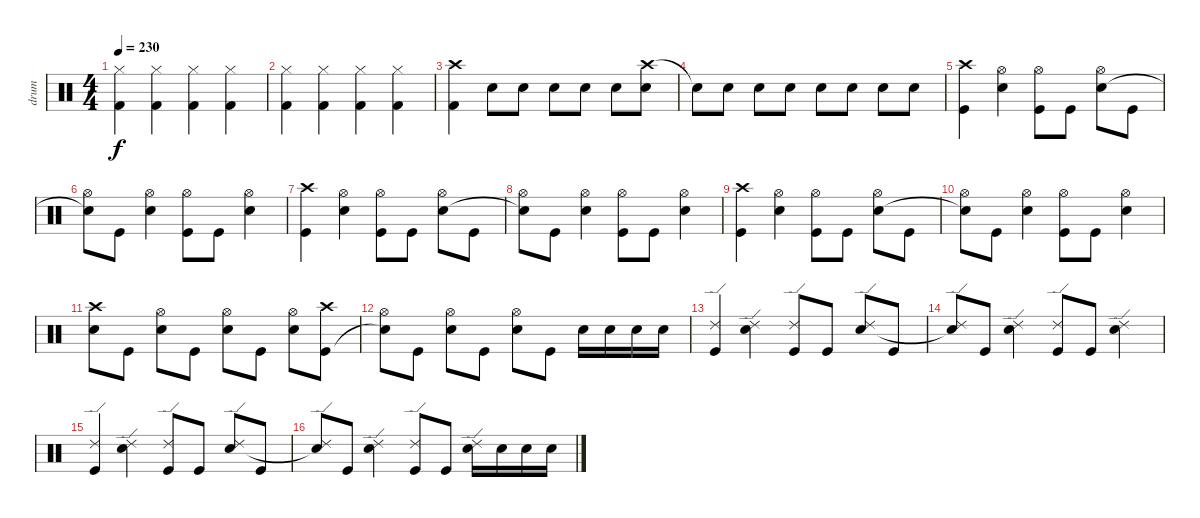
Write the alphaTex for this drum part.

\track ("drum" "drum") {instrument percussion}
\staff {score}
\articulation defaults
\ts (4 4)
\tempo 230
\clef neutral
\ks c
("Hi-Hat (closed)" "Kick (hit) 2").4{dy f} ("Hi-Hat (closed)" "Kick (hit) 2").4 ("Hi-Hat (closed)" "Kick (hit) 2").4 ("Hi-Hat (closed)" "Kick (hit) 2").4 |
("Hi-Hat (closed)" "Kick (hit) 2").4 ("Hi-Hat (closed)" "Kick (hit) 2").4 ("Hi-Hat (closed)" "Kick (hit) 2").4 ("Hi-Hat (closed)" "Kick (hit) 2").4 |
("Crash high (hit)" "Kick (hit) 2").4 "Snare (hit) 2".8 "Snare (hit) 2".8 "Snare (hit) 2".8 "Snare (hit) 2".8 "Snare (hit) 2".8 ("Crash high (hit)" "Snare (hit) 2").8 |
"Snare (hit)"{t}.8 "Snare (hit) 2".8 "Snare (hit) 2".8 "Snare (hit) 2".8 "Snare (hit) 2".8 "Snare (hit) 2".8 "Snare (hit) 2".8 "Snare (hit) 2".8 |
("Crash high (hit)" "Kick (hit)").4 ("Hi-Hat (open)" "Snare (hit) 2").4 ("Hi-Hat (open)" "Kick (hit)").8 "Kick (hit)".8 ("Hi-Hat (open)" "Snare (hit) 2").8 "Kick (hit)".8 |
("Hi-Hat (open)" "Snare (hit) 2"{t}).8 "Kick (hit)".8 ("Hi-Hat (open)" "Snare (hit) 2").4 ("Hi-Hat (open)" "Kick (hit)").8 "Kick (hit)".8 ("Hi-Hat (open)" "Snare (hit) 2").4 |
("Crash high (hit)" "Kick (hit)").4 ("Hi-Hat (open)" "Snare (hit) 2").4 ("Hi-Hat (open)" "Kick (hit)").8 "Kick (hit)".8 ("Hi-Hat (open)" "Snare (hit) 2").8 "Kick (hit)".8 |
("Hi-Hat (open)" "Snare (hit) 2"{t}).8 "Kick (hit)".8 ("Hi-Hat (open)" "Snare (hit) 2").4 ("Hi-Hat (open)" "Kick (hit)").8 "Kick (hit)".8 ("Hi-Hat (open)" "Snare (hit) 2").4 |
("Crash high (hit)" "Kick (hit)").4 ("Hi-Hat (open)" "Snare (hit) 2").4 ("Hi-Hat (open)" "Kick (hit)").8 "Kick (hit)".8 ("Hi-Hat (open)" "Snare (hit) 2").8 "Kick (hit)".8 |
("Hi-Hat (open)" "Snare (hit) 2"{t}).8 "Kick (hit)".8 ("Hi-Hat (open)" "Snare (hit) 2").4 ("Hi-Hat (open)" "Kick (hit)").8 "Kick (hit)".8 ("Hi-Hat (open)" "Snare (hit) 2").4 |
("Crash high (hit)" "Snare (hit) 2").8 "Kick (hit)".8 ("Hi-Hat (open)" "Snare (hit) 2").8 "Kick (hit)".8 ("Hi-Hat (open)" "Snare (hit) 2").8 "Kick (hit)".8 ("Hi-Hat (open)" "Snare (hit) 2").8 ("Crash high (hit)" "Kick (hit)").8 |
("Hi-Hat (open)" "Snare (hit) 2"{t}).8 "Kick (hit)".8 ("Hi-Hat (open)" "Snare (hit) 2").8 "Kick (hit)".8 ("Hi-Hat (open)" "Snare (hit) 2").8 "Kick (hit)".8 "Snare (hit) 2".16 "Snare (hit) 2".16 "Snare (hit) 2".16 "Snare (hit) 2".16 |
("Ride (edge) 2" "Kick (hit)").4 ("Ride (edge) 2" "Snare (hit) 2").4 ("Ride (edge) 2" "Kick (hit)").8 "Kick (hit)".8 ("Ride (edge) 2" "Snare (hit) 2").8 "Kick (hit)".8 |
("Ride (edge) 2" "Snare (hit) 2"{t}).8 "Kick (hit)".8 ("Ride (edge) 2" "Snare (hit) 2").4 ("Ride (edge) 2" "Kick (hit)").8 "Kick (hit)".8 ("Ride (edge) 2" "Snare (hit) 2").4 |
("Ride (edge) 2" "Kick (hit)").4 ("Ride (edge) 2" "Snare (hit) 2").4 ("Ride (edge) 2" "Kick (hit)").8 "Kick (hit)".8 ("Ride (edge) 2" "Snare (hit) 2").8 "Kick (hit)".8 |
("Ride (edge) 2" "Snare (hit) 2"{t}).8 "Kick (hit)".8 ("Ride (edge) 2" "Snare (hit) 2").4 ("Ride (edge) 2" "Kick (hit)").8 "Kick (hit)".8 ("Ride (edge) 2" "Snare (hit) 2").16 "Snare (hit) 2".16 "Snare (hit) 2".16 "Snare (hit) 2".16
